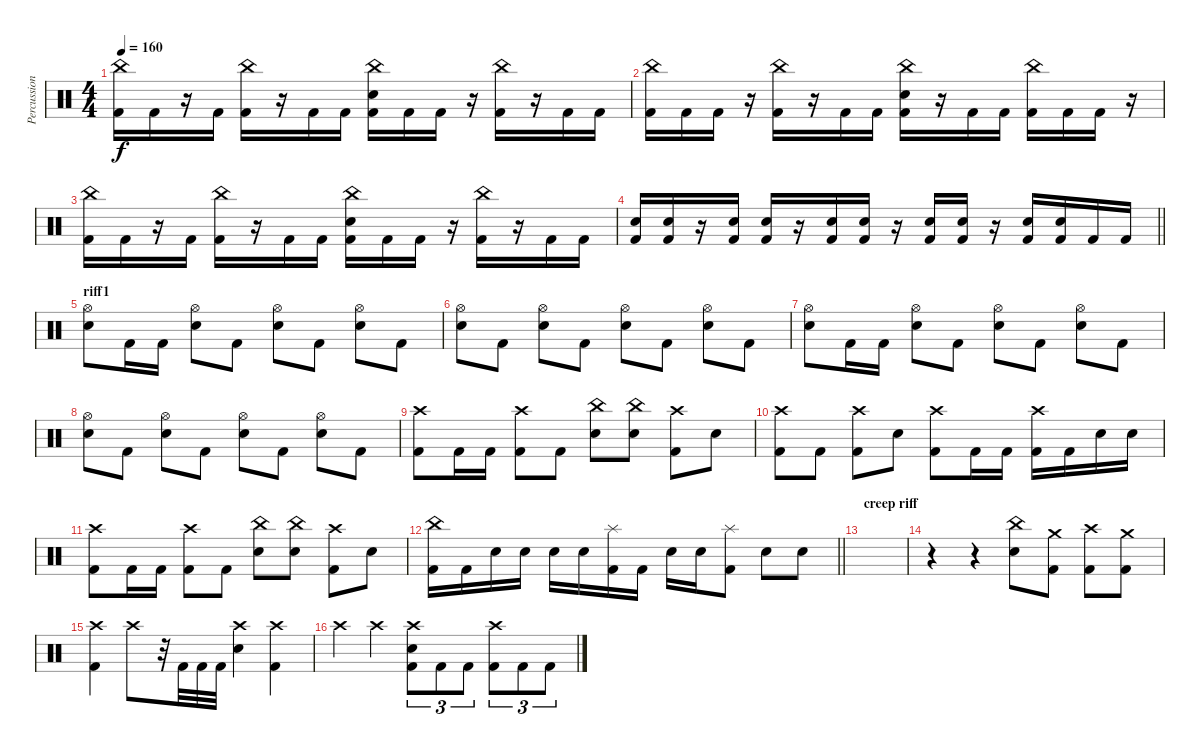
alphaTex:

\track ("Percussion" "Percussion") {instrument percussion bank 255}
\staff {score}
\articulation defaults
\ts (4 4)
\tempo 160
\clef neutral
\ks c
("China (hit)" "Kick (hit) 2").16{dy f} "Kick (hit) 2".16 r.16 "Kick (hit) 2".16 ("China (hit)" "Kick (hit) 2").16 r.16 "Kick (hit) 2".16 "Kick (hit) 2".16 ("China (hit)" "Electric Snare (hit)" "Kick (hit) 2").16 "Kick (hit) 2".16 "Kick (hit) 2".16 r.16 ("China (hit)" "Kick (hit) 2").16 r.16 "Kick (hit) 2".16 "Kick (hit) 2".16 |
("China (hit)" "Kick (hit) 2").16 "Kick (hit) 2".16 "Kick (hit) 2".16 r.16 ("China (hit)" "Kick (hit) 2").16 r.16 "Kick (hit) 2".16 "Kick (hit) 2".16 ("China (hit)" "Electric Snare (hit)" "Kick (hit) 2").16 r.16 "Kick (hit) 2".16 "Kick (hit) 2".16 ("China (hit)" "Kick (hit) 2").16 "Kick (hit) 2".16 "Kick (hit) 2".16 r.16 |
("China (hit)" "Kick (hit) 2").16 "Kick (hit) 2".16 r.16 "Kick (hit) 2".16 ("China (hit)" "Kick (hit) 2").16 r.16 "Kick (hit) 2".16 "Kick (hit) 2".16 ("China (hit)" "Electric Snare (hit)" "Kick (hit) 2").16 "Kick (hit) 2".16 "Kick (hit) 2".16 r.16 ("China (hit)" "Kick (hit) 2").16 r.16 "Kick (hit) 2".16 "Kick (hit) 2".16 |
\barLineRight lightlight
("Electric Snare (hit)" "Kick (hit) 2").16 ("Electric Snare (hit)" "Kick (hit) 2").16 r.16 ("Electric Snare (hit)" "Kick (hit) 2").16 ("Electric Snare (hit)" "Kick (hit) 2").16 r.16 ("Electric Snare (hit)" "Kick (hit) 2").16 ("Electric Snare (hit)" "Kick (hit) 2").16 r.16 ("Electric Snare (hit)" "Kick (hit) 2").16 ("Electric Snare (hit)" "Kick (hit) 2").16 r.16 ("Electric Snare (hit)" "Kick (hit) 2").16 ("Electric Snare (hit)" "Kick (hit) 2").16 "Kick (hit) 2".16 "Kick (hit) 2".16 |
\section ("" "riff1")
("Hi-Hat (open)" "Electric Snare (hit)").8 "Kick (hit) 2".16 "Kick (hit) 2".16 ("Hi-Hat (open)" "Electric Snare (hit)").8 "Kick (hit) 2".8 ("Hi-Hat (open)" "Electric Snare (hit)").8 "Kick (hit) 2".8 ("Hi-Hat (open)" "Electric Snare (hit)").8 "Kick (hit) 2".8 |
("Hi-Hat (open)" "Electric Snare (hit)").8 "Kick (hit) 2".8 ("Hi-Hat (open)" "Electric Snare (hit)").8 "Kick (hit) 2".8 ("Hi-Hat (open)" "Electric Snare (hit)").8 "Kick (hit) 2".8 ("Hi-Hat (open)" "Electric Snare (hit)").8 "Kick (hit) 2".8 |
("Hi-Hat (open)" "Electric Snare (hit)").8 "Kick (hit) 2".16 "Kick (hit) 2".16 ("Hi-Hat (open)" "Electric Snare (hit)").8 "Kick (hit) 2".8 ("Hi-Hat (open)" "Electric Snare (hit)").8 "Kick (hit) 2".8 ("Hi-Hat (open)" "Electric Snare (hit)").8 "Kick (hit) 2".8 |
("Hi-Hat (open)" "Electric Snare (hit)").8 "Kick (hit) 2".8 ("Hi-Hat (open)" "Electric Snare (hit)").8 "Kick (hit) 2".8 ("Hi-Hat (open)" "Electric Snare (hit)").8 "Kick (hit) 2".8 ("Hi-Hat (open)" "Electric Snare (hit)").8 "Kick (hit) 2".8 |
("Crash high (hit)" "Kick (hit) 2").8 "Kick (hit) 2".16 "Kick (hit) 2".16 ("Crash high (hit)" "Kick (hit) 2").8 "Kick (hit) 2".8 ("China (hit)" "Electric Snare (hit)").8 ("China (hit)" "Electric Snare (hit)").8 ("Crash high (hit)" "Kick (hit) 2").8 "Electric Snare (hit)".8 |
("Crash high (hit)" "Kick (hit) 2").8 "Kick (hit) 2".8 ("Crash high (hit)" "Kick (hit) 2").8 "Electric Snare (hit)".8 ("Crash high (hit)" "Kick (hit) 2").8 "Kick (hit) 2".16 "Kick (hit) 2".16 ("Crash high (hit)" "Kick (hit) 2").16 "Kick (hit) 2".16 "Electric Snare (hit)".16 "Electric Snare (hit)".16 |
("Crash high (hit)" "Kick (hit) 2").8 "Kick (hit) 2".16 "Kick (hit) 2".16 ("Crash high (hit)" "Kick (hit) 2").8 "Kick (hit) 2".8 ("China (hit)" "Electric Snare (hit)").8 ("China (hit)" "Electric Snare (hit)").8 ("Crash high (hit)" "Kick (hit) 2").8 "Electric Snare (hit)".8 |
\barLineRight lightlight
("China (hit)" "Kick (hit) 2").16 "Kick (hit) 2".16 "Electric Snare (hit)".16 "Electric Snare (hit)".16 "Electric Snare (hit)".16 "Electric Snare (hit)".16 ("Splash (hit)" "Kick (hit) 2").16 "Kick (hit) 2".16 "Electric Snare (hit)".16 "Electric Snare (hit)".16 ("Splash (hit)" "Kick (hit) 2").8 "Electric Snare (hit)".8 "Electric Snare (hit)".8 |
\section ("" "creep riff")
|
r.4 r.4 ("China (hit)" "Electric Snare (hit)").8 ("Crash medium (hit)" "Kick (hit) 2").8 ("Crash high (hit)" "Kick (hit) 2").8 ("Crash medium (hit)" "Kick (hit) 2").8 |
("Crash high (hit)" "Kick (hit) 2").4 "Crash high (hit)".8 r.32 "Kick (hit) 2".32 "Kick (hit) 2".32 "Kick (hit) 2".32 ("Crash high (hit)" "Electric Snare (hit)").4 ("Crash high (hit)" "Kick (hit) 2").4 |
"Crash high (hit)".4 "Crash high (hit)".4 ("Crash high (hit)" "Electric Snare (hit)" "Kick (hit) 2").8{tu (3 2)} "Kick (hit) 2".8{tu (3 2)} "Kick (hit) 2".8{tu (3 2)} ("Crash high (hit)" "Kick (hit) 2").8{tu (3 2)} "Kick (hit) 2".8{tu (3 2)} "Kick (hit) 2".8{tu (3 2)}
